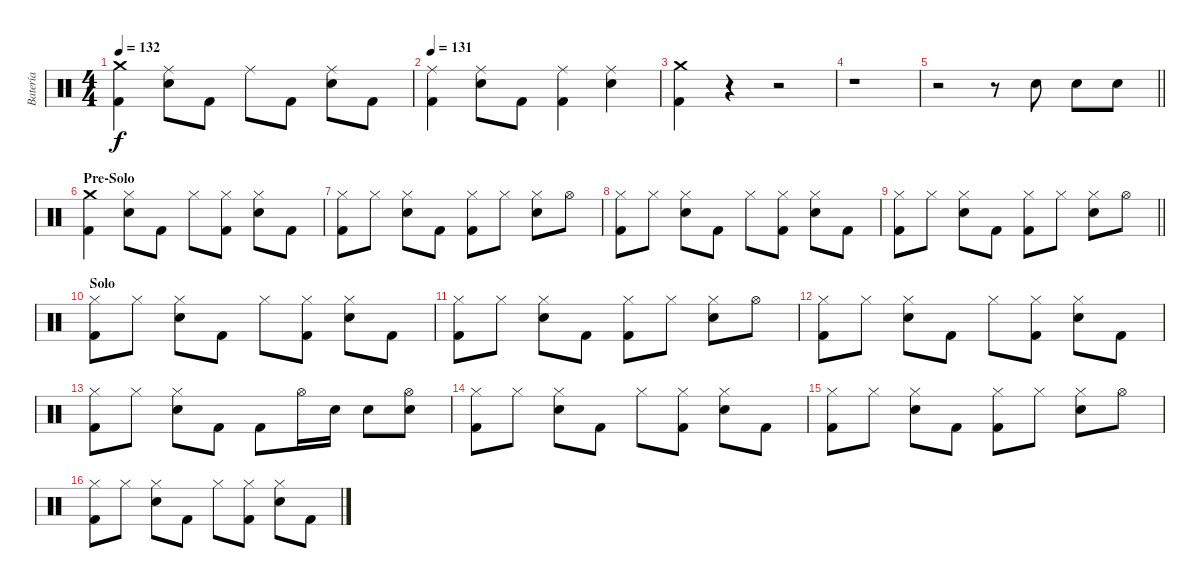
\track ("Batería" "Batería") {instrument percussion}
\staff {score}
\articulation defaults
\ts (4 4)
\tempo 132
\clef neutral
\ks aminor
("Crash medium (hit)" "Kick (hit) 2").4{dy f} ("Ride (middle)" "Electric Snare (hit)").8 "Kick (hit) 2".8 "Ride (middle)".8 "Kick (hit) 2".8 ("Ride (middle)" "Electric Snare (hit)").8 "Kick (hit) 2".8 |
\tempo 131
("Ride (middle)" "Kick (hit) 2").4 ("Ride (middle)" "Electric Snare (hit)").8 "Kick (hit) 2".8 ("Ride (middle)" "Kick (hit) 2").4 ("Ride (middle)" "Electric Snare (hit)").4 |
("Crash medium (hit)" "Kick (hit) 2").4 r.4 r.2 |
r.1 |
\barLineRight lightlight
r.2 r.8 "Electric Snare (hit)".8 "Electric Snare (hit)".8 "Electric Snare (hit)".8 |
\section ("" "Pre-Solo")
("Crash medium (hit)" "Kick (hit) 2").4 ("Hi-Hat (closed)" "Electric Snare (hit)").8 "Kick (hit) 2".8 "Hi-Hat (closed)".8 ("Hi-Hat (closed)" "Kick (hit) 2").8 ("Hi-Hat (closed)" "Electric Snare (hit)").8 "Kick (hit) 2".8 |
("Hi-Hat (closed)" "Kick (hit) 2").8 "Hi-Hat (closed)".8 ("Hi-Hat (closed)" "Electric Snare (hit)").8 "Kick (hit) 2".8 ("Hi-Hat (closed)" "Kick (hit) 2").8 "Hi-Hat (closed)".8 ("Hi-Hat (closed)" "Electric Snare (hit)").8 "Hi-Hat (open)".8 |
("Hi-Hat (closed)" "Kick (hit) 2").8 "Hi-Hat (closed)".8 ("Hi-Hat (closed)" "Electric Snare (hit)").8 "Kick (hit) 2".8 "Hi-Hat (closed)".8 ("Hi-Hat (closed)" "Kick (hit) 2").8 ("Hi-Hat (closed)" "Electric Snare (hit)").8 "Kick (hit) 2".8 |
\barLineRight lightlight
("Hi-Hat (closed)" "Kick (hit) 2").8 "Hi-Hat (closed)".8 ("Hi-Hat (closed)" "Electric Snare (hit)").8 "Kick (hit) 2".8 ("Hi-Hat (closed)" "Kick (hit) 2").8 "Hi-Hat (closed)".8 ("Hi-Hat (closed)" "Electric Snare (hit)").8 "Hi-Hat (open)".8 |
\section ("" "Solo")
("Hi-Hat (closed)" "Kick (hit) 2").8 "Hi-Hat (closed)".8 ("Hi-Hat (closed)" "Electric Snare (hit)").8 "Kick (hit) 2".8 "Hi-Hat (closed)".8 ("Hi-Hat (closed)" "Kick (hit) 2").8 ("Hi-Hat (closed)" "Electric Snare (hit)").8 "Kick (hit) 2".8 |
("Hi-Hat (closed)" "Kick (hit) 2").8 "Hi-Hat (closed)".8 ("Hi-Hat (closed)" "Electric Snare (hit)").8 "Kick (hit) 2".8 ("Hi-Hat (closed)" "Kick (hit) 2").8 "Hi-Hat (closed)".8 ("Hi-Hat (closed)" "Electric Snare (hit)").8 "Hi-Hat (open)".8 |
("Hi-Hat (closed)" "Kick (hit) 2").8 "Hi-Hat (closed)".8 ("Hi-Hat (closed)" "Electric Snare (hit)").8 "Kick (hit) 2".8 "Hi-Hat (closed)".8 ("Hi-Hat (closed)" "Kick (hit) 2").8 ("Hi-Hat (closed)" "Electric Snare (hit)").8 "Kick (hit) 2".8 |
("Hi-Hat (closed)" "Kick (hit) 2").8 "Hi-Hat (closed)".8 ("Hi-Hat (closed)" "Electric Snare (hit)").8 "Kick (hit) 2".8 "Kick (hit) 2".8 "Hi-Hat (open)".16 "Electric Snare (hit)".16 "Electric Snare (hit)".8 ("Hi-Hat (open)" "Electric Snare (hit)").8 |
("Hi-Hat (closed)" "Kick (hit) 2").8 "Hi-Hat (closed)".8 ("Hi-Hat (closed)" "Electric Snare (hit)").8 "Kick (hit) 2".8 "Hi-Hat (closed)".8 ("Hi-Hat (closed)" "Kick (hit) 2").8 ("Hi-Hat (closed)" "Electric Snare (hit)").8 "Kick (hit) 2".8 |
("Hi-Hat (closed)" "Kick (hit) 2").8 "Hi-Hat (closed)".8 ("Hi-Hat (closed)" "Electric Snare (hit)").8 "Kick (hit) 2".8 ("Hi-Hat (closed)" "Kick (hit) 2").8 "Hi-Hat (closed)".8 ("Hi-Hat (closed)" "Electric Snare (hit)").8 "Hi-Hat (open)".8 |
("Hi-Hat (closed)" "Kick (hit) 2").8 "Hi-Hat (closed)".8 ("Hi-Hat (closed)" "Electric Snare (hit)").8 "Kick (hit) 2".8 "Hi-Hat (closed)".8 ("Hi-Hat (closed)" "Kick (hit) 2").8 ("Hi-Hat (closed)" "Electric Snare (hit)").8 "Kick (hit) 2".8
